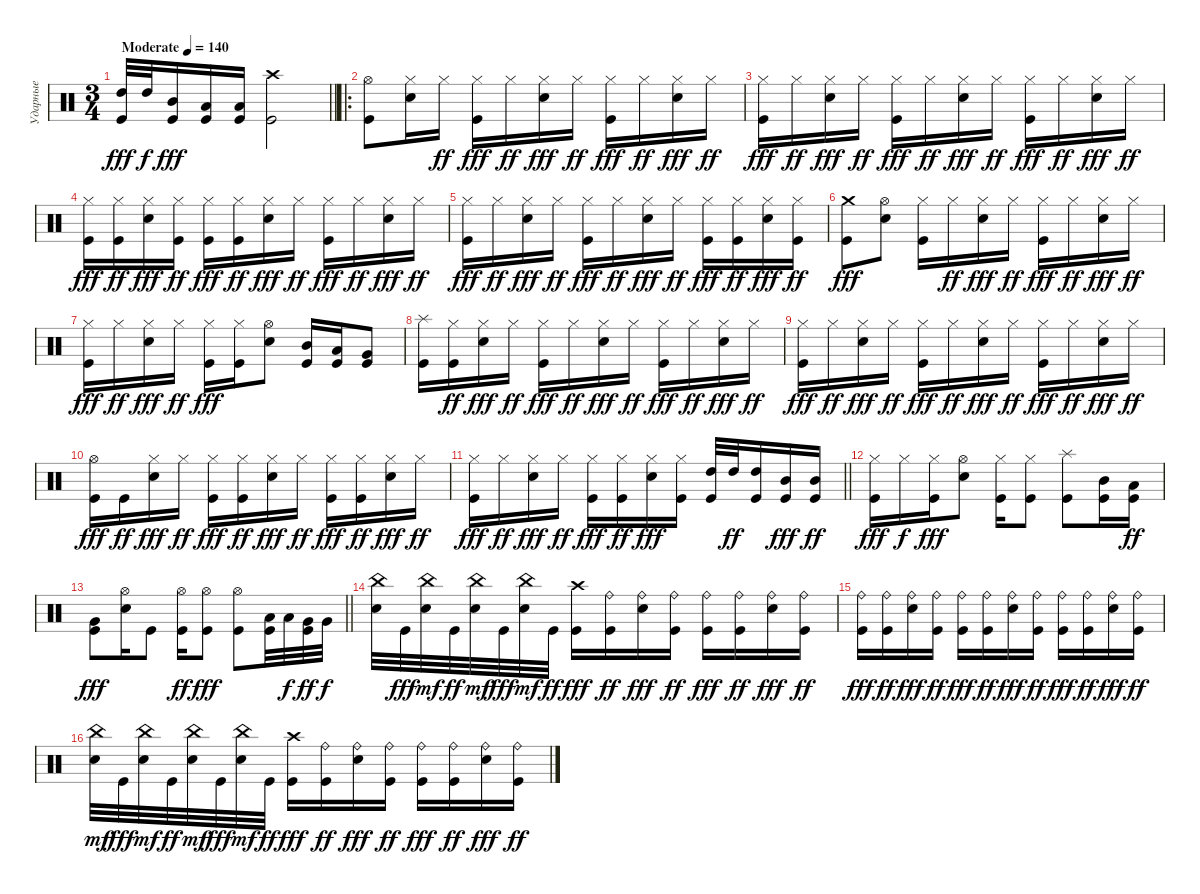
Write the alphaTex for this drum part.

\track ("Ударные" "Ударные") {instrument percussion}
\staff {score}
\articulation defaults
\ts (3 4)
\tempo (140 "Moderate")
\clef neutral
\barLineRight lightlight
\ks c
("High Tom (hit)" "Kick (hit)").32{dy fff} "High Tom (hit)".32{dy f} ("Mid Tom (hit)" "Kick (hit)").16{dy fff} ("Low Tom (hit)" "Kick (hit)").16 ("Low Tom (hit)" "Kick (hit)").16 ("Crash high (hit)" "Kick (hit)").2 |
\ro
("Hi-Hat (open)" "Kick (hit)").8 ("Hi-Hat (closed)" "Electric Snare (hit)").16 "Hi-Hat (closed)".16{dy ff} ("Hi-Hat (closed)" "Kick (hit)").16{dy fff} "Hi-Hat (closed)".16{dy ff} ("Hi-Hat (closed)" "Electric Snare (hit)").16{dy fff} "Hi-Hat (closed)".16{dy ff} ("Hi-Hat (closed)" "Kick (hit)").16{dy fff} "Hi-Hat (closed)".16{dy ff} ("Hi-Hat (closed)" "Electric Snare (hit)").16{dy fff} "Hi-Hat (closed)".16{dy ff} |
("Hi-Hat (closed)" "Kick (hit)").16{dy fff} "Hi-Hat (closed)".16{dy ff} ("Hi-Hat (closed)" "Electric Snare (hit)").16{dy fff} "Hi-Hat (closed)".16{dy ff} ("Hi-Hat (closed)" "Kick (hit)").16{dy fff} "Hi-Hat (closed)".16{dy ff} ("Hi-Hat (closed)" "Electric Snare (hit)").16{dy fff} "Hi-Hat (closed)".16{dy ff} ("Hi-Hat (closed)" "Kick (hit)").16{dy fff} "Hi-Hat (closed)".16{dy ff} ("Hi-Hat (closed)" "Electric Snare (hit)").16{dy fff} "Hi-Hat (closed)".16{dy ff} |
("Hi-Hat (closed)" "Kick (hit)").16{dy fff} ("Hi-Hat (closed)" "Kick (hit)").16{dy ff} ("Hi-Hat (closed)" "Electric Snare (hit)").16{dy fff} ("Hi-Hat (closed)" "Kick (hit)").16{dy ff} ("Hi-Hat (closed)" "Kick (hit)").16{dy fff} ("Hi-Hat (closed)" "Kick (hit)").16{dy ff} ("Hi-Hat (closed)" "Electric Snare (hit)").16{dy fff} "Hi-Hat (closed)".16{dy ff} ("Hi-Hat (closed)" "Kick (hit)").16{dy fff} "Hi-Hat (closed)".16{dy ff} ("Hi-Hat (closed)" "Electric Snare (hit)").16{dy fff} "Hi-Hat (closed)".16{dy ff} |
("Hi-Hat (closed)" "Kick (hit)").16{dy fff} "Hi-Hat (closed)".16{dy ff} ("Hi-Hat (closed)" "Electric Snare (hit)").16{dy fff} "Hi-Hat (closed)".16{dy ff} ("Hi-Hat (closed)" "Kick (hit)").16{dy fff} "Hi-Hat (closed)".16{dy ff} ("Hi-Hat (closed)" "Electric Snare (hit)").16{dy fff} "Hi-Hat (closed)".16{dy ff} ("Hi-Hat (closed)" "Kick (hit)").16{dy fff} ("Hi-Hat (closed)" "Kick (hit)").16{dy ff} ("Hi-Hat (closed)" "Electric Snare (hit)").16{dy fff} ("Hi-Hat (closed)" "Kick (hit)").16{dy ff} |
("Crash medium (hit)" "Kick (hit)").8{dy fff} ("Hi-Hat (open)" "Electric Snare (hit)").8 ("Hi-Hat (closed)" "Kick (hit)").16 "Hi-Hat (closed)".16{dy ff} ("Hi-Hat (closed)" "Electric Snare (hit)").16{dy fff} "Hi-Hat (closed)".16{dy ff} ("Hi-Hat (closed)" "Kick (hit)").16{dy fff} "Hi-Hat (closed)".16{dy ff} ("Hi-Hat (closed)" "Electric Snare (hit)").16{dy fff} "Hi-Hat (closed)".16{dy ff} |
("Hi-Hat (closed)" "Kick (hit)").16{dy fff} "Hi-Hat (closed)".16{dy ff} ("Hi-Hat (closed)" "Electric Snare (hit)").16{dy fff} "Hi-Hat (closed)".16{dy ff} ("Hi-Hat (closed)" "Kick (hit)").16{dy fff} ("Hi-Hat (closed)" "Kick (hit)").16 ("Hi-Hat (open)" "Electric Snare (hit)").8 ("Mid Tom (hit)" "Kick (hit)").16 ("Low Tom (hit)" "Kick (hit)").16 ("Very Low Tom (hit)" "Kick (hit)").8 |
("Splash (hit)" "Kick (hit)").16 ("Hi-Hat (closed)" "Kick (hit)").16{dy ff} ("Hi-Hat (closed)" "Electric Snare (hit)").16{dy fff} "Hi-Hat (closed)".16{dy ff} ("Hi-Hat (closed)" "Kick (hit)").16{dy fff} "Hi-Hat (closed)".16{dy ff} ("Hi-Hat (closed)" "Electric Snare (hit)").16{dy fff} "Hi-Hat (closed)".16{dy ff} ("Hi-Hat (closed)" "Kick (hit)").16{dy fff} "Hi-Hat (closed)".16{dy ff} ("Hi-Hat (closed)" "Electric Snare (hit)").16{dy fff} "Hi-Hat (closed)".16{dy ff} |
("Hi-Hat (closed)" "Kick (hit)").16{dy fff} "Hi-Hat (closed)".16{dy ff} ("Hi-Hat (closed)" "Electric Snare (hit)").16{dy fff} "Hi-Hat (closed)".16{dy ff} ("Hi-Hat (closed)" "Kick (hit)").16{dy fff} "Hi-Hat (closed)".16{dy ff} ("Hi-Hat (closed)" "Electric Snare (hit)").16{dy fff} "Hi-Hat (closed)".16{dy ff} ("Hi-Hat (closed)" "Kick (hit)").16{dy fff} "Hi-Hat (closed)".16{dy ff} ("Hi-Hat (closed)" "Electric Snare (hit)").16{dy fff} "Hi-Hat (closed)".16{dy ff} |
("Hi-Hat (open)" "Kick (hit)").16{dy fff} "Kick (hit)".16{dy ff} ("Hi-Hat (closed)" "Electric Snare (hit)").16{dy fff} "Hi-Hat (closed)".16{dy ff} ("Hi-Hat (closed)" "Kick (hit)").16{dy fff} ("Hi-Hat (closed)" "Kick (hit)").16{dy ff} ("Hi-Hat (closed)" "Electric Snare (hit)").16{dy fff} "Hi-Hat (closed)".16{dy ff} ("Hi-Hat (closed)" "Kick (hit)").16{dy fff} ("Hi-Hat (closed)" "Kick (hit)").16{dy ff} ("Hi-Hat (closed)" "Electric Snare (hit)").16{dy fff} "Hi-Hat (closed)".16{dy ff} |
\barLineRight lightlight
("Hi-Hat (closed)" "Kick (hit)").16{dy fff} "Hi-Hat (closed)".16{dy ff} ("Hi-Hat (closed)" "Electric Snare (hit)").16{dy fff} "Hi-Hat (closed)".16{dy ff} ("Hi-Hat (closed)" "Kick (hit)").16{dy fff} ("Hi-Hat (closed)" "Kick (hit)").16{dy ff} ("Hi-Hat (closed)" "Electric Snare (hit)").16{dy fff} ("Hi-Hat (closed)" "Kick (hit)").16 ("High Tom (hit)" "Kick (hit)").32 "High Tom (hit)".32{dy ff} ("High Tom (hit)" "Kick (hit)").16 ("Mid Tom (hit)" "Kick (hit)").16{dy fff} ("Mid Tom (hit)" "Kick (hit)").16{dy ff} |
("Hi-Hat (closed)" "Kick (hit)").16{dy fff} "Hi-Hat (closed)".16{dy f} ("Hi-Hat (closed)" "Kick (hit)").16{dy fff} ("Hi-Hat (open)" "Electric Snare (hit)").8 ("Hi-Hat (closed)" "Kick (hit)").16 ("Hi-Hat (closed)" "Kick (hit)").8 ("Splash (hit)" "Kick (hit)").8 ("Mid Tom (hit)" "Kick (hit)").16 ("Low Tom (hit)" "Kick (hit)").16{dy ff} |
\barLineRight lightlight
("Very Low Tom (hit)" "Kick (hit)").8{dy fff} ("Hi-Hat (open)" "Electric Snare (hit)").16 "Kick (hit)".8 ("Hi-Hat (open)" "Kick (hit)").16{dy ff} ("Hi-Hat (open)" "Kick (hit)").8{dy fff} ("Hi-Hat (open)" "Kick (hit)").8 ("Low Tom (hit)" "Kick (hit)").32 "Low Tom (hit)".32{dy f} ("Very Low Tom (hit)" "Kick (hit)").32{dy ff} "Very Low Tom (hit)".32{dy f} |
("China (hit)" "Electric Snare (hit)").32 "Kick (hit)".32{dy fff} ("China (hit)" "Electric Snare (hit)").32{dy mf} "Kick (hit)".32{dy ff} ("China (hit)" "Electric Snare (hit)").32{dy mf} "Kick (hit)".32{dy fff} ("China (hit)" "Electric Snare (hit)").32{dy mf} "Kick (hit)".32{dy ff} ("Crash high (hit)" "Kick (hit)").16{dy fff} ("Ride (bell)" "Kick (hit)").16{dy ff} ("Ride (bell)" "Electric Snare (hit)").16{dy fff} ("Ride (bell)" "Kick (hit)").16{dy ff} ("Ride (bell)" "Kick (hit)").16{dy fff} ("Ride (bell)" "Kick (hit)").16{dy ff} ("Ride (bell)" "Electric Snare (hit)").16{dy fff} ("Ride (bell)" "Kick (hit)").16{dy ff} |
("Ride (bell)" "Kick (hit)").16{dy fff} ("Ride (bell)" "Kick (hit)").16{dy ff} ("Ride (bell)" "Electric Snare (hit)").16{dy fff} ("Ride (bell)" "Kick (hit)").16{dy ff} ("Ride (bell)" "Kick (hit)").16{dy fff} ("Ride (bell)" "Kick (hit)").16{dy ff} ("Ride (bell)" "Electric Snare (hit)").16{dy fff} ("Ride (bell)" "Kick (hit)").16{dy ff} ("Ride (bell)" "Kick (hit)").16{dy fff} ("Ride (bell)" "Kick (hit)").16{dy ff} ("Ride (bell)" "Electric Snare (hit)").16{dy fff} ("Ride (bell)" "Kick (hit)").16{dy ff} |
("China (hit)" "Electric Snare (hit)").32{dy mf} "Kick (hit)".32{dy fff} ("China (hit)" "Electric Snare (hit)").32{dy mf} "Kick (hit)".32{dy ff} ("China (hit)" "Electric Snare (hit)").32{dy mf} "Kick (hit)".32{dy fff} ("China (hit)" "Electric Snare (hit)").32{dy mf} "Kick (hit)".32{dy ff} ("Crash high (hit)" "Kick (hit)").16{dy fff} ("Ride (bell)" "Kick (hit)").16{dy ff} ("Ride (bell)" "Electric Snare (hit)").16{dy fff} ("Ride (bell)" "Kick (hit)").16{dy ff} ("Ride (bell)" "Kick (hit)").16{dy fff} ("Ride (bell)" "Kick (hit)").16{dy ff} ("Ride (bell)" "Electric Snare (hit)").16{dy fff} ("Ride (bell)" "Kick (hit)").16{dy ff}
